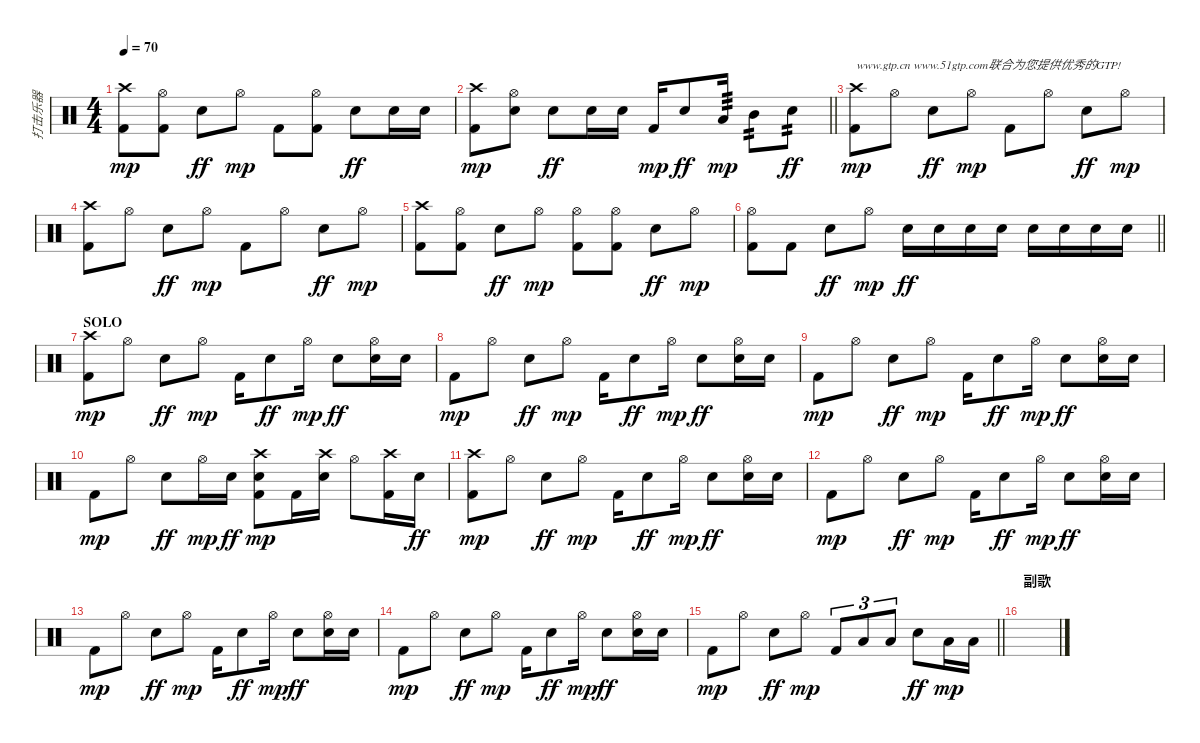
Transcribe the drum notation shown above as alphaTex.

\track ("打击乐器" "打击乐器") {instrument percussion}
\staff {score}
\articulation defaults
\ts (4 4)
\tempo 70
\clef neutral
\ks c
("Crash high (hit)" "Kick (hit) 2").8{dy mp} ("Hi-Hat (open)" "Kick (hit) 2").8 "Snare (hit) 2".8{dy ff} "Hi-Hat (open)".8{dy mp} "Kick (hit) 2".8 ("Hi-Hat (open)" "Kick (hit) 2").8 "Snare (hit) 2".8{dy ff} "Snare (hit) 2".16 "Snare (hit) 2".16 |
\barLineRight lightlight
("Crash high (hit)" "Kick (hit) 2").8{dy mp} ("Hi-Hat (open)" "Snare (hit) 2").8 "Snare (hit) 2".8{dy ff} "Snare (hit) 2".16 "Snare (hit) 2".16 "Kick (hit) 2".16{dy mp} "Snare (hit) 2".8{dy ff} "Low Tom (hit)".16{tp 3 dy mp} "Mid Tom (hit)".8{tp 2} "Snare (hit) 2".8{tp 2 dy ff} |
("Crash high (hit)" "Kick (hit) 2").8{txt "www.gtp.cn www.51gtp.com联合为您提供优秀的GTP!" dy mp} "Hi-Hat (open)".8 "Snare (hit) 2".8{dy ff} "Hi-Hat (open)".8{dy mp} "Kick (hit) 2".8 "Hi-Hat (open)".8 "Snare (hit) 2".8{dy ff} "Hi-Hat (open)".8{dy mp} |
("Crash high (hit)" "Kick (hit) 2").8 "Hi-Hat (open)".8 "Snare (hit) 2".8{dy ff} "Hi-Hat (open)".8{dy mp} "Kick (hit) 2".8 "Hi-Hat (open)".8 "Snare (hit) 2".8{dy ff} "Hi-Hat (open)".8{dy mp} |
("Crash high (hit)" "Kick (hit) 2").8 ("Hi-Hat (open)" "Kick (hit) 2").8 "Snare (hit) 2".8{dy ff} "Hi-Hat (open)".8{dy mp} ("Hi-Hat (open)" "Kick (hit) 2").8 ("Hi-Hat (open)" "Kick (hit) 2").8 "Snare (hit) 2".8{dy ff} "Hi-Hat (open)".8{dy mp} |
\barLineRight lightlight
("Hi-Hat (open)" "Kick (hit) 2").8 "Kick (hit) 2".8 "Snare (hit) 2".8{dy ff} "Hi-Hat (open)".8{dy mp} "Snare (hit) 2".16{dy ff} "Snare (hit) 2".16 "Snare (hit) 2".16 "Snare (hit) 2".16 "Snare (hit) 2".16 "Snare (hit) 2".16 "Snare (hit) 2".16 "Snare (hit) 2".16 |
\section ("" "SOLO")
("Crash high (hit)" "Kick (hit) 2").8{dy mp} "Hi-Hat (open)".8 "Snare (hit) 2".8{dy ff} "Hi-Hat (open)".8{dy mp} "Kick (hit) 2".16 "Snare (hit) 2".8{dy ff} "Hi-Hat (open)".16{dy mp} "Snare (hit) 2".8{dy ff} ("Hi-Hat (open)" "Snare (hit) 2").16 "Snare (hit) 2".16 |
"Kick (hit) 2".8{dy mp} "Hi-Hat (open)".8 "Snare (hit) 2".8{dy ff} "Hi-Hat (open)".8{dy mp} "Kick (hit) 2".16 "Snare (hit) 2".8{dy ff} "Hi-Hat (open)".16{dy mp} "Snare (hit) 2".8{dy ff} ("Hi-Hat (open)" "Snare (hit) 2").16 "Snare (hit) 2".16 |
"Kick (hit) 2".8{dy mp} "Hi-Hat (open)".8 "Snare (hit) 2".8{dy ff} "Hi-Hat (open)".8{dy mp} "Kick (hit) 2".16 "Snare (hit) 2".8{dy ff} "Hi-Hat (open)".16{dy mp} "Snare (hit) 2".8{dy ff} ("Hi-Hat (open)" "Snare (hit) 2").16 "Snare (hit) 2".16 |
"Kick (hit) 2".8{dy mp} "Hi-Hat (open)".8 "Snare (hit) 2".8{dy ff} "Hi-Hat (open)".16{dy mp} "Snare (hit) 2".16{dy ff} ("Crash high (hit)" "Snare (hit) 2" "Kick (hit) 2").8{dy mp} "Kick (hit) 2".16 ("Crash high (hit)" "Snare (hit) 2").16 "Hi-Hat (open)".8 ("Crash high (hit)" "Kick (hit) 2").16 "Snare (hit) 2".16{dy ff} |
("Crash high (hit)" "Kick (hit) 2").8{dy mp} "Hi-Hat (open)".8 "Snare (hit) 2".8{dy ff} "Hi-Hat (open)".8{dy mp} "Kick (hit) 2".16 "Snare (hit) 2".8{dy ff} "Hi-Hat (open)".16{dy mp} "Snare (hit) 2".8{dy ff} ("Hi-Hat (open)" "Snare (hit) 2").16 "Snare (hit) 2".16 |
"Kick (hit) 2".8{dy mp} "Hi-Hat (open)".8 "Snare (hit) 2".8{dy ff} "Hi-Hat (open)".8{dy mp} "Kick (hit) 2".16 "Snare (hit) 2".8{dy ff} "Hi-Hat (open)".16{dy mp} "Snare (hit) 2".8{dy ff} ("Hi-Hat (open)" "Snare (hit) 2").16 "Snare (hit) 2".16 |
"Kick (hit) 2".8{dy mp} "Hi-Hat (open)".8 "Snare (hit) 2".8{dy ff} "Hi-Hat (open)".8{dy mp} "Kick (hit) 2".16 "Snare (hit) 2".8{dy ff} "Hi-Hat (open)".16{dy mp} "Snare (hit) 2".8{dy ff} ("Hi-Hat (open)" "Snare (hit) 2").16 "Snare (hit) 2".16 |
"Kick (hit) 2".8{dy mp} "Hi-Hat (open)".8 "Snare (hit) 2".8{dy ff} "Hi-Hat (open)".8{dy mp} "Kick (hit) 2".16 "Snare (hit) 2".8{dy ff} "Hi-Hat (open)".16{dy mp} "Snare (hit) 2".8{dy ff} ("Hi-Hat (open)" "Snare (hit) 2").16 "Snare (hit) 2".16 |
\barLineRight lightlight "Kick (hit) 2".8{dy mp} "Hi-Hat (open)".8 "Snare (hit) 2".8{dy ff} "Hi-Hat (open)".8{dy mp} "Kick (hit) 2".8{tu (3 2)} "Low Tom (hit)".8{tu (3 2)} "Low Tom (hit)".8{tu (3 2)} "Snare (hit) 2".8{dy ff} "Low Tom (hit)".16{dy mp} "Low Tom (hit)".16
|
\section ("" "副歌")
